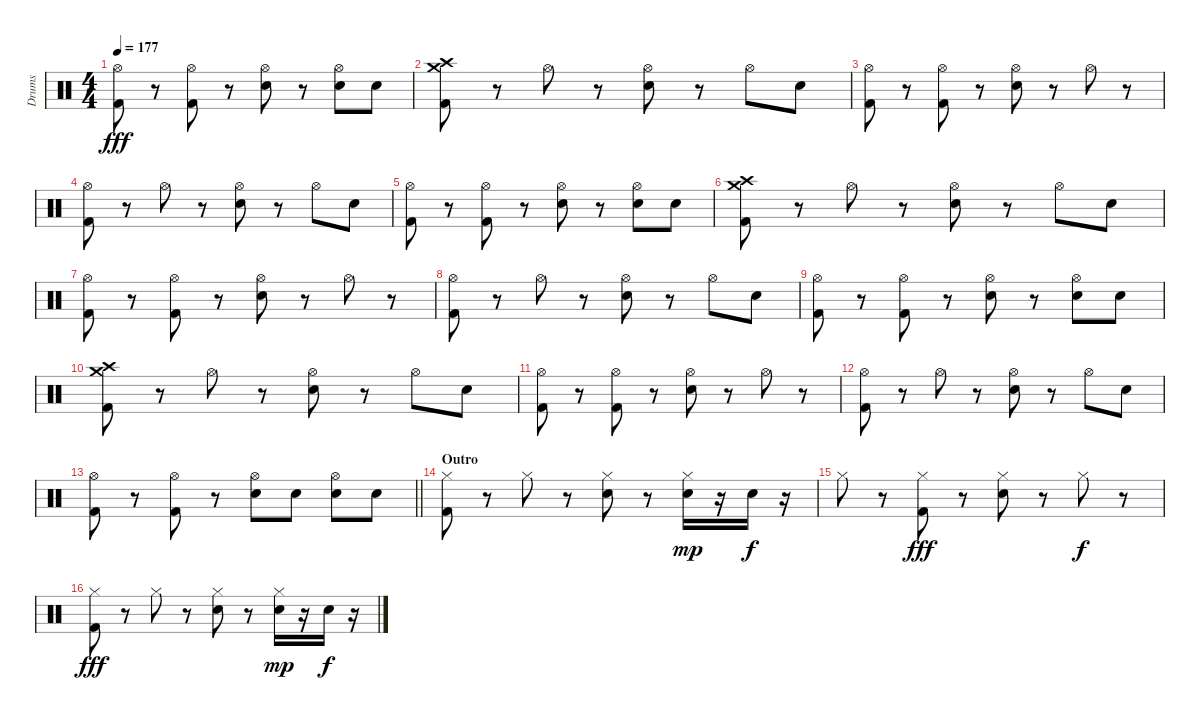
\track ("Drums" "Drums") {instrument percussion}
\staff {score}
\articulation defaults
\ts (4 4)
\tempo 177
\clef neutral
\ks c
("Hi-Hat (open)" "Kick (hit) 2").8{dy fff} r.8 ("Hi-Hat (open)" "Kick (hit) 2").8 r.8 ("Hi-Hat (open)" "Snare (hit) 2").8 r.8 ("Hi-Hat (open)" "Snare (hit) 2").8 "Snare (hit) 2".8 |
("Crash high (hit)" "Crash medium (hit)" "Kick (hit) 2").8 r.8 "Hi-Hat (open)".8 r.8 ("Hi-Hat (open)" "Snare (hit) 2").8 r.8 "Hi-Hat (open)".8 "Snare (hit) 2".8 |
("Hi-Hat (open)" "Kick (hit) 2").8 r.8 ("Hi-Hat (open)" "Kick (hit) 2").8 r.8 ("Hi-Hat (open)" "Snare (hit) 2").8 r.8 "Hi-Hat (open)".8 r.8 |
("Hi-Hat (open)" "Kick (hit) 2").8 r.8 "Hi-Hat (open)".8 r.8 ("Hi-Hat (open)" "Snare (hit) 2").8 r.8 "Hi-Hat (open)".8 "Snare (hit) 2".8 |
("Hi-Hat (open)" "Kick (hit) 2").8 r.8 ("Hi-Hat (open)" "Kick (hit) 2").8 r.8 ("Hi-Hat (open)" "Snare (hit) 2").8 r.8 ("Hi-Hat (open)" "Snare (hit) 2").8 "Snare (hit) 2".8 |
("Crash high (hit)" "Crash medium (hit)" "Kick (hit) 2").8 r.8 "Hi-Hat (open)".8 r.8 ("Hi-Hat (open)" "Snare (hit) 2").8 r.8 "Hi-Hat (open)".8 "Snare (hit) 2".8 |
("Hi-Hat (open)" "Kick (hit) 2").8 r.8 ("Hi-Hat (open)" "Kick (hit) 2").8 r.8 ("Hi-Hat (open)" "Snare (hit) 2").8 r.8 "Hi-Hat (open)".8 r.8 |
("Hi-Hat (open)" "Kick (hit) 2").8 r.8 "Hi-Hat (open)".8 r.8 ("Hi-Hat (open)" "Snare (hit) 2").8 r.8 "Hi-Hat (open)".8 "Snare (hit) 2".8 |
("Hi-Hat (open)" "Kick (hit) 2").8 r.8 ("Hi-Hat (open)" "Kick (hit) 2").8 r.8 ("Hi-Hat (open)" "Snare (hit) 2").8 r.8 ("Hi-Hat (open)" "Snare (hit) 2").8 "Snare (hit) 2".8 |
("Crash high (hit)" "Crash medium (hit)" "Kick (hit) 2").8 r.8 "Hi-Hat (open)".8 r.8 ("Hi-Hat (open)" "Snare (hit) 2").8 r.8 "Hi-Hat (open)".8 "Snare (hit) 2".8 |
("Hi-Hat (open)" "Kick (hit) 2").8 r.8 ("Hi-Hat (open)" "Kick (hit) 2").8 r.8 ("Hi-Hat (open)" "Snare (hit) 2").8 r.8 "Hi-Hat (open)".8 r.8 |
("Hi-Hat (open)" "Kick (hit) 2").8 r.8 "Hi-Hat (open)".8 r.8 ("Hi-Hat (open)" "Snare (hit) 2").8 r.8 "Hi-Hat (open)".8 "Snare (hit) 2".8 |
\barLineRight lightlight
("Hi-Hat (open)" "Kick (hit) 2").8 r.8 ("Hi-Hat (open)" "Kick (hit) 2").8 r.8 ("Hi-Hat (open)" "Snare (hit) 2").8 "Snare (hit) 2".8 ("Hi-Hat (open)" "Snare (hit) 2").8 "Snare (hit) 2".8 |
\section ("" "Outro")
("Hi-Hat (closed)" "Kick (hit) 2").8 r.8 "Hi-Hat (closed)".8 r.8 ("Hi-Hat (closed)" "Snare (hit) 2").8 r.8 ("Hi-Hat (closed)" "Snare (hit) 2").16{dy mp} r.16 "Snare (hit) 2".16{dy f} r.16 |
"Hi-Hat (closed)".8 r.8 ("Hi-Hat (closed)" "Kick (hit) 2").8{dy fff} r.8 ("Hi-Hat (closed)" "Snare (hit) 2").8 r.8 "Hi-Hat (closed)".8{dy f} r.8 |
("Hi-Hat (closed)" "Kick (hit) 2").8{dy fff} r.8 "Hi-Hat (closed)".8 r.8 ("Hi-Hat (closed)" "Snare (hit) 2").8 r.8 ("Hi-Hat (closed)" "Snare (hit) 2").16{dy mp} r.16 "Snare (hit) 2".16{dy f} r.16
